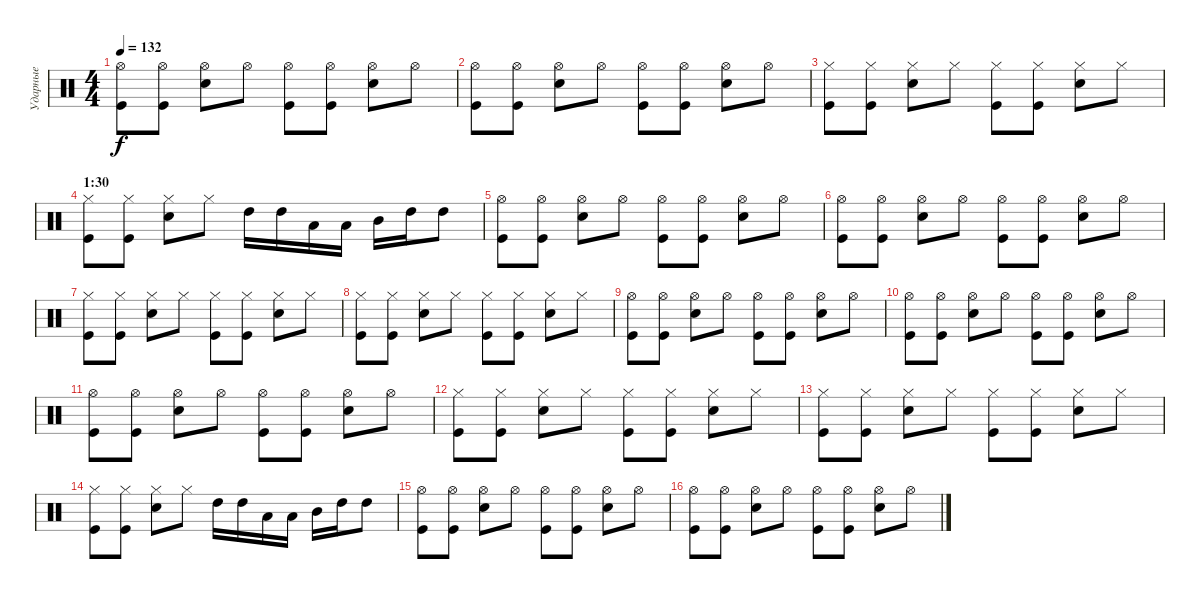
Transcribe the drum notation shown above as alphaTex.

\track ("Ударные" "Ударные") {instrument percussion}
\staff {score}
\articulation defaults
\ts (4 4)
\tempo 132
\clef neutral
\ks c
("Hi-Hat (open)" "Kick (hit)").8{dy f} ("Hi-Hat (open)" "Kick (hit)").8 ("Hi-Hat (open)" "Snare (hit) 2").8 "Hi-Hat (open)".8 ("Hi-Hat (open)" "Kick (hit)").8 ("Hi-Hat (open)" "Kick (hit)").8 ("Hi-Hat (open)" "Snare (hit) 2").8 "Hi-Hat (open)".8 |
("Hi-Hat (open)" "Kick (hit)").8 ("Hi-Hat (open)" "Kick (hit)").8 ("Hi-Hat (open)" "Snare (hit) 2").8 "Hi-Hat (open)".8 ("Hi-Hat (open)" "Kick (hit)").8 ("Hi-Hat (open)" "Kick (hit)").8 ("Hi-Hat (open)" "Snare (hit) 2").8 "Hi-Hat (open)".8 |
("Hi-Hat (closed)" "Kick (hit)").8 ("Hi-Hat (closed)" "Kick (hit)").8 ("Hi-Hat (closed)" "Snare (hit) 2").8 "Hi-Hat (closed)".8 ("Hi-Hat (closed)" "Kick (hit)").8 ("Hi-Hat (closed)" "Kick (hit)").8 ("Hi-Hat (closed)" "Snare (hit) 2").8 "Hi-Hat (closed)".8 |
\section ("" "1:30")
("Hi-Hat (closed)" "Kick (hit)").8 ("Hi-Hat (closed)" "Kick (hit)").8 ("Hi-Hat (closed)" "Snare (hit) 2").8 "Hi-Hat (closed)".8 "High Tom (hit)".16 "High Tom (hit)".16 "Low Tom (hit)".16 "Low Tom (hit)".16 "Mid Tom (hit)".16 "High Tom (hit)".16 "High Tom (hit)".8 |
("Hi-Hat (open)" "Kick (hit)").8 ("Hi-Hat (open)" "Kick (hit)").8 ("Hi-Hat (open)" "Snare (hit) 2").8 "Hi-Hat (open)".8 ("Hi-Hat (open)" "Kick (hit)").8 ("Hi-Hat (open)" "Kick (hit)").8 ("Hi-Hat (open)" "Snare (hit) 2").8 "Hi-Hat (open)".8 |
("Hi-Hat (open)" "Kick (hit)").8 ("Hi-Hat (open)" "Kick (hit)").8 ("Hi-Hat (open)" "Snare (hit) 2").8 "Hi-Hat (open)".8 ("Hi-Hat (open)" "Kick (hit)").8 ("Hi-Hat (open)" "Kick (hit)").8 ("Hi-Hat (open)" "Snare (hit) 2").8 "Hi-Hat (open)".8 |
("Hi-Hat (closed)" "Kick (hit)").8 ("Hi-Hat (closed)" "Kick (hit)").8 ("Hi-Hat (closed)" "Snare (hit) 2").8 "Hi-Hat (closed)".8 ("Hi-Hat (closed)" "Kick (hit)").8 ("Hi-Hat (closed)" "Kick (hit)").8 ("Hi-Hat (closed)" "Snare (hit) 2").8 "Hi-Hat (closed)".8 |
("Hi-Hat (closed)" "Kick (hit)").8 ("Hi-Hat (closed)" "Kick (hit)").8 ("Hi-Hat (closed)" "Snare (hit) 2").8 "Hi-Hat (closed)".8 ("Hi-Hat (closed)" "Kick (hit)").8 ("Hi-Hat (closed)" "Kick (hit)").8 ("Hi-Hat (closed)" "Snare (hit) 2").8 "Hi-Hat (closed)".8 |
("Hi-Hat (open)" "Kick (hit)").8 ("Hi-Hat (open)" "Kick (hit)").8 ("Hi-Hat (open)" "Snare (hit) 2").8 "Hi-Hat (open)".8 ("Hi-Hat (open)" "Kick (hit)").8 ("Hi-Hat (open)" "Kick (hit)").8 ("Hi-Hat (open)" "Snare (hit) 2").8 "Hi-Hat (open)".8 |
("Hi-Hat (open)" "Kick (hit)").8 ("Hi-Hat (open)" "Kick (hit)").8 ("Hi-Hat (open)" "Snare (hit) 2").8 "Hi-Hat (open)".8 ("Hi-Hat (open)" "Kick (hit)").8 ("Hi-Hat (open)" "Kick (hit)").8 ("Hi-Hat (open)" "Snare (hit) 2").8 "Hi-Hat (open)".8 |
("Hi-Hat (open)" "Kick (hit)").8 ("Hi-Hat (open)" "Kick (hit)").8 ("Hi-Hat (open)" "Snare (hit) 2").8 "Hi-Hat (open)".8 ("Hi-Hat (open)" "Kick (hit)").8 ("Hi-Hat (open)" "Kick (hit)").8 ("Hi-Hat (open)" "Snare (hit) 2").8 "Hi-Hat (open)".8 |
("Hi-Hat (closed)" "Kick (hit)").8 ("Hi-Hat (closed)" "Kick (hit)").8 ("Hi-Hat (closed)" "Snare (hit) 2").8 "Hi-Hat (closed)".8 ("Hi-Hat (closed)" "Kick (hit)").8 ("Hi-Hat (closed)" "Kick (hit)").8 ("Hi-Hat (closed)" "Snare (hit) 2").8 "Hi-Hat (closed)".8 |
("Hi-Hat (closed)" "Kick (hit)").8 ("Hi-Hat (closed)" "Kick (hit)").8 ("Hi-Hat (closed)" "Snare (hit) 2").8 "Hi-Hat (closed)".8 ("Hi-Hat (closed)" "Kick (hit)").8 ("Hi-Hat (closed)" "Kick (hit)").8 ("Hi-Hat (closed)" "Snare (hit) 2").8 "Hi-Hat (closed)".8 |
("Hi-Hat (closed)" "Kick (hit)").8 ("Hi-Hat (closed)" "Kick (hit)").8 ("Hi-Hat (closed)" "Snare (hit) 2").8 "Hi-Hat (closed)".8 "High Tom (hit)".16 "High Tom (hit)".16 "Low Tom (hit)".16 "Low Tom (hit)".16 "Mid Tom (hit)".16 "High Tom (hit)".16 "High Tom (hit)".8 |
("Hi-Hat (open)" "Kick (hit)").8 ("Hi-Hat (open)" "Kick (hit)").8 ("Hi-Hat (open)" "Snare (hit) 2").8 "Hi-Hat (open)".8 ("Hi-Hat (open)" "Kick (hit)").8 ("Hi-Hat (open)" "Kick (hit)").8 ("Hi-Hat (open)" "Snare (hit) 2").8 "Hi-Hat (open)".8 |
("Hi-Hat (open)" "Kick (hit)").8 ("Hi-Hat (open)" "Kick (hit)").8 ("Hi-Hat (open)" "Snare (hit) 2").8 "Hi-Hat (open)".8 ("Hi-Hat (open)" "Kick (hit)").8 ("Hi-Hat (open)" "Kick (hit)").8 ("Hi-Hat (open)" "Snare (hit) 2").8 "Hi-Hat (open)".8
